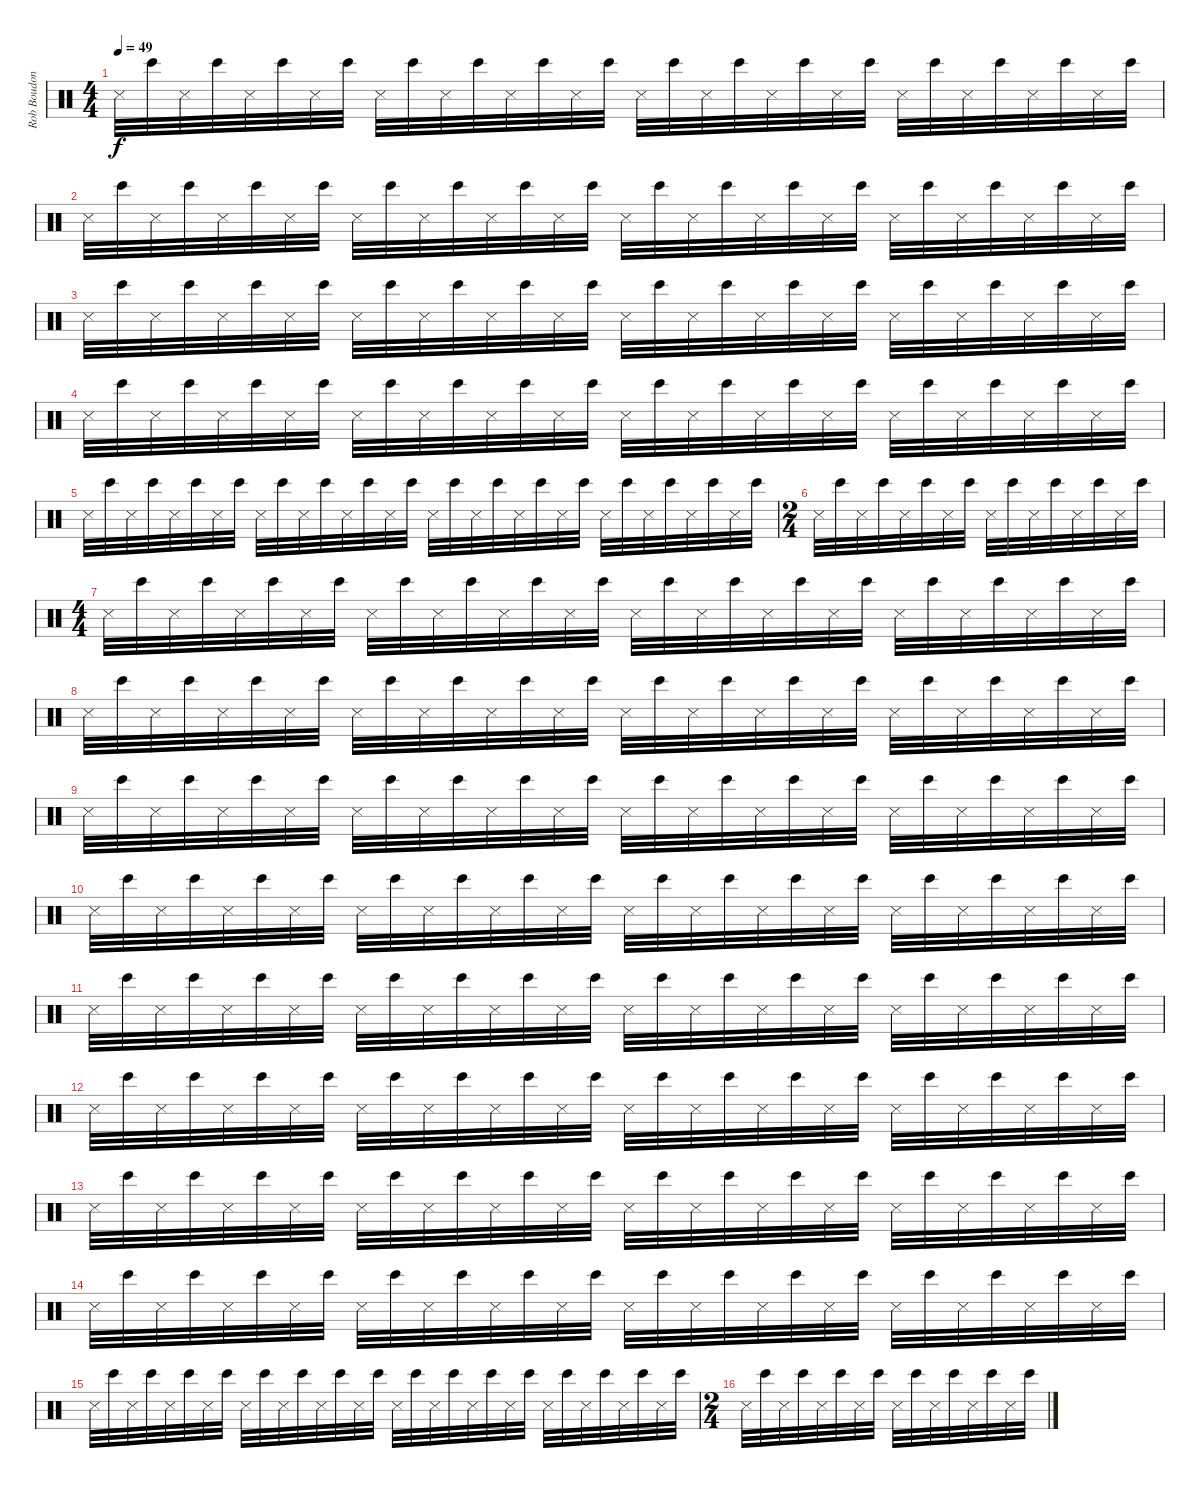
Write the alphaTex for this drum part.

\track ("Rob Boudon [Drums]" "Rob Boudon") {instrument percussion}
\staff {score}
\articulation defaults
\ts (4 4)
\tempo 49
\clef neutral
\ks c "Snare (side stick) 3".32{dy f} "Bongo High (hit)".32 "Snare (side stick) 3".32 "Bongo High (hit)".32 "Snare (side stick) 3".32 "Bongo High (hit)".32 "Snare (side stick) 3".32 "Bongo High (hit)".32 "Snare (side stick) 3".32 "Bongo High (hit)".32 "Snare (side stick) 3".32 "Bongo High (hit)".32 "Snare (side stick) 3".32 "Bongo High (hit)".32 "Snare (side stick) 3".32 "Bongo High (hit)".32 "Snare (side stick) 3".32 "Bongo High (hit)".32 "Snare (side stick) 3".32 "Bongo High (hit)".32 "Snare (side stick) 3".32 "Bongo High (hit)".32 "Snare (side stick) 3".32 "Bongo High (hit)".32 "Snare (side stick) 3".32 "Bongo High (hit)".32 "Snare (side stick) 3".32 "Bongo High (hit)".32 "Snare (side stick) 3".32 "Bongo High (hit)".32 "Snare (side stick) 3".32 "Bongo High (hit)".32
|
"Snare (side stick) 3".32 "Bongo High (hit)".32 "Snare (side stick) 3".32 "Bongo High (hit)".32 "Snare (side stick) 3".32 "Bongo High (hit)".32 "Snare (side stick) 3".32 "Bongo High (hit)".32 "Snare (side stick) 3".32 "Bongo High (hit)".32 "Snare (side stick) 3".32 "Bongo High (hit)".32 "Snare (side stick) 3".32 "Bongo High (hit)".32 "Snare (side stick) 3".32 "Bongo High (hit)".32 "Snare (side stick) 3".32 "Bongo High (hit)".32 "Snare (side stick) 3".32 "Bongo High (hit)".32 "Snare (side stick) 3".32 "Bongo High (hit)".32 "Snare (side stick) 3".32 "Bongo High (hit)".32 "Snare (side stick) 3".32 "Bongo High (hit)".32 "Snare (side stick) 3".32 "Bongo High (hit)".32 "Snare (side stick) 3".32 "Bongo High (hit)".32 "Snare (side stick) 3".32 "Bongo High (hit)".32 |
"Snare (side stick) 3".32 "Bongo High (hit)".32 "Snare (side stick) 3".32 "Bongo High (hit)".32 "Snare (side stick) 3".32 "Bongo High (hit)".32 "Snare (side stick) 3".32 "Bongo High (hit)".32 "Snare (side stick) 3".32 "Bongo High (hit)".32 "Snare (side stick) 3".32 "Bongo High (hit)".32 "Snare (side stick) 3".32 "Bongo High (hit)".32 "Snare (side stick) 3".32 "Bongo High (hit)".32 "Snare (side stick) 3".32 "Bongo High (hit)".32 "Snare (side stick) 3".32 "Bongo High (hit)".32 "Snare (side stick) 3".32 "Bongo High (hit)".32 "Snare (side stick) 3".32 "Bongo High (hit)".32 "Snare (side stick) 3".32 "Bongo High (hit)".32 "Snare (side stick) 3".32 "Bongo High (hit)".32 "Snare (side stick) 3".32 "Bongo High (hit)".32 "Snare (side stick) 3".32 "Bongo High (hit)".32 |
"Snare (side stick) 3".32 "Bongo High (hit)".32 "Snare (side stick) 3".32 "Bongo High (hit)".32 "Snare (side stick) 3".32 "Bongo High (hit)".32 "Snare (side stick) 3".32 "Bongo High (hit)".32 "Snare (side stick) 3".32 "Bongo High (hit)".32 "Snare (side stick) 3".32 "Bongo High (hit)".32 "Snare (side stick) 3".32 "Bongo High (hit)".32 "Snare (side stick) 3".32 "Bongo High (hit)".32 "Snare (side stick) 3".32 "Bongo High (hit)".32 "Snare (side stick) 3".32 "Bongo High (hit)".32 "Snare (side stick) 3".32 "Bongo High (hit)".32 "Snare (side stick) 3".32 "Bongo High (hit)".32 "Snare (side stick) 3".32 "Bongo High (hit)".32 "Snare (side stick) 3".32 "Bongo High (hit)".32 "Snare (side stick) 3".32 "Bongo High (hit)".32 "Snare (side stick) 3".32 "Bongo High (hit)".32 |
"Snare (side stick) 3".32 "Bongo High (hit)".32 "Snare (side stick) 3".32 "Bongo High (hit)".32 "Snare (side stick) 3".32 "Bongo High (hit)".32 "Snare (side stick) 3".32 "Bongo High (hit)".32 "Snare (side stick) 3".32 "Bongo High (hit)".32 "Snare (side stick) 3".32 "Bongo High (hit)".32 "Snare (side stick) 3".32 "Bongo High (hit)".32 "Snare (side stick) 3".32 "Bongo High (hit)".32 "Snare (side stick) 3".32 "Bongo High (hit)".32 "Snare (side stick) 3".32 "Bongo High (hit)".32 "Snare (side stick) 3".32 "Bongo High (hit)".32 "Snare (side stick) 3".32 "Bongo High (hit)".32 "Snare (side stick) 3".32 "Bongo High (hit)".32 "Snare (side stick) 3".32 "Bongo High (hit)".32 "Snare (side stick) 3".32 "Bongo High (hit)".32 "Snare (side stick) 3".32 "Bongo High (hit)".32 |
\ts (2 4)
"Snare (side stick) 3".32 "Bongo High (hit)".32 "Snare (side stick) 3".32 "Bongo High (hit)".32 "Snare (side stick) 3".32 "Bongo High (hit)".32 "Snare (side stick) 3".32 "Bongo High (hit)".32 "Snare (side stick) 3".32 "Bongo High (hit)".32 "Snare (side stick) 3".32 "Bongo High (hit)".32 "Snare (side stick) 3".32 "Bongo High (hit)".32 "Snare (side stick) 3".32 "Bongo High (hit)".32 |
\ts (4 4)
"Snare (side stick) 3".32 "Bongo High (hit)".32 "Snare (side stick) 3".32 "Bongo High (hit)".32 "Snare (side stick) 3".32 "Bongo High (hit)".32 "Snare (side stick) 3".32 "Bongo High (hit)".32 "Snare (side stick) 3".32 "Bongo High (hit)".32 "Snare (side stick) 3".32 "Bongo High (hit)".32 "Snare (side stick) 3".32 "Bongo High (hit)".32 "Snare (side stick) 3".32 "Bongo High (hit)".32 "Snare (side stick) 3".32 "Bongo High (hit)".32 "Snare (side stick) 3".32 "Bongo High (hit)".32 "Snare (side stick) 3".32 "Bongo High (hit)".32 "Snare (side stick) 3".32 "Bongo High (hit)".32 "Snare (side stick) 3".32 "Bongo High (hit)".32 "Snare (side stick) 3".32 "Bongo High (hit)".32 "Snare (side stick) 3".32 "Bongo High (hit)".32 "Snare (side stick) 3".32 "Bongo High (hit)".32 |
"Snare (side stick) 3".32 "Bongo High (hit)".32 "Snare (side stick) 3".32 "Bongo High (hit)".32 "Snare (side stick) 3".32 "Bongo High (hit)".32 "Snare (side stick) 3".32 "Bongo High (hit)".32 "Snare (side stick) 3".32 "Bongo High (hit)".32 "Snare (side stick) 3".32 "Bongo High (hit)".32 "Snare (side stick) 3".32 "Bongo High (hit)".32 "Snare (side stick) 3".32 "Bongo High (hit)".32 "Snare (side stick) 3".32 "Bongo High (hit)".32 "Snare (side stick) 3".32 "Bongo High (hit)".32 "Snare (side stick) 3".32 "Bongo High (hit)".32 "Snare (side stick) 3".32 "Bongo High (hit)".32 "Snare (side stick) 3".32 "Bongo High (hit)".32 "Snare (side stick) 3".32 "Bongo High (hit)".32 "Snare (side stick) 3".32 "Bongo High (hit)".32 "Snare (side stick) 3".32 "Bongo High (hit)".32 |
"Snare (side stick) 3".32 "Bongo High (hit)".32 "Snare (side stick) 3".32 "Bongo High (hit)".32 "Snare (side stick) 3".32 "Bongo High (hit)".32 "Snare (side stick) 3".32 "Bongo High (hit)".32 "Snare (side stick) 3".32 "Bongo High (hit)".32 "Snare (side stick) 3".32 "Bongo High (hit)".32 "Snare (side stick) 3".32 "Bongo High (hit)".32 "Snare (side stick) 3".32 "Bongo High (hit)".32 "Snare (side stick) 3".32 "Bongo High (hit)".32 "Snare (side stick) 3".32 "Bongo High (hit)".32 "Snare (side stick) 3".32 "Bongo High (hit)".32 "Snare (side stick) 3".32 "Bongo High (hit)".32 "Snare (side stick) 3".32 "Bongo High (hit)".32 "Snare (side stick) 3".32 "Bongo High (hit)".32 "Snare (side stick) 3".32 "Bongo High (hit)".32 "Snare (side stick) 3".32 "Bongo High (hit)".32 |
"Snare (side stick) 3".32 "Bongo High (hit)".32 "Snare (side stick) 3".32 "Bongo High (hit)".32 "Snare (side stick) 3".32 "Bongo High (hit)".32 "Snare (side stick) 3".32 "Bongo High (hit)".32 "Snare (side stick) 3".32 "Bongo High (hit)".32 "Snare (side stick) 3".32 "Bongo High (hit)".32 "Snare (side stick) 3".32 "Bongo High (hit)".32 "Snare (side stick) 3".32 "Bongo High (hit)".32 "Snare (side stick) 3".32 "Bongo High (hit)".32 "Snare (side stick) 3".32 "Bongo High (hit)".32 "Snare (side stick) 3".32 "Bongo High (hit)".32 "Snare (side stick) 3".32 "Bongo High (hit)".32 "Snare (side stick) 3".32 "Bongo High (hit)".32 "Snare (side stick) 3".32 "Bongo High (hit)".32 "Snare (side stick) 3".32 "Bongo High (hit)".32 "Snare (side stick) 3".32 "Bongo High (hit)".32 |
"Snare (side stick) 3".32 "Bongo High (hit)".32 "Snare (side stick) 3".32 "Bongo High (hit)".32 "Snare (side stick) 3".32 "Bongo High (hit)".32 "Snare (side stick) 3".32 "Bongo High (hit)".32 "Snare (side stick) 3".32 "Bongo High (hit)".32 "Snare (side stick) 3".32 "Bongo High (hit)".32 "Snare (side stick) 3".32 "Bongo High (hit)".32 "Snare (side stick) 3".32 "Bongo High (hit)".32 "Snare (side stick) 3".32 "Bongo High (hit)".32 "Snare (side stick) 3".32 "Bongo High (hit)".32 "Snare (side stick) 3".32 "Bongo High (hit)".32 "Snare (side stick) 3".32 "Bongo High (hit)".32 "Snare (side stick) 3".32 "Bongo High (hit)".32 "Snare (side stick) 3".32 "Bongo High (hit)".32 "Snare (side stick) 3".32 "Bongo High (hit)".32 "Snare (side stick) 3".32 "Bongo High (hit)".32 |
"Snare (side stick) 3".32 "Bongo High (hit)".32 "Snare (side stick) 3".32 "Bongo High (hit)".32 "Snare (side stick) 3".32 "Bongo High (hit)".32 "Snare (side stick) 3".32 "Bongo High (hit)".32 "Snare (side stick) 3".32 "Bongo High (hit)".32 "Snare (side stick) 3".32 "Bongo High (hit)".32 "Snare (side stick) 3".32 "Bongo High (hit)".32 "Snare (side stick) 3".32 "Bongo High (hit)".32 "Snare (side stick) 3".32 "Bongo High (hit)".32 "Snare (side stick) 3".32 "Bongo High (hit)".32 "Snare (side stick) 3".32 "Bongo High (hit)".32 "Snare (side stick) 3".32 "Bongo High (hit)".32 "Snare (side stick) 3".32 "Bongo High (hit)".32 "Snare (side stick) 3".32 "Bongo High (hit)".32 "Snare (side stick) 3".32 "Bongo High (hit)".32 "Snare (side stick) 3".32 "Bongo High (hit)".32 |
"Snare (side stick) 3".32 "Bongo High (hit)".32 "Snare (side stick) 3".32 "Bongo High (hit)".32 "Snare (side stick) 3".32 "Bongo High (hit)".32 "Snare (side stick) 3".32 "Bongo High (hit)".32 "Snare (side stick) 3".32 "Bongo High (hit)".32 "Snare (side stick) 3".32 "Bongo High (hit)".32 "Snare (side stick) 3".32 "Bongo High (hit)".32 "Snare (side stick) 3".32 "Bongo High (hit)".32 "Snare (side stick) 3".32 "Bongo High (hit)".32 "Snare (side stick) 3".32 "Bongo High (hit)".32 "Snare (side stick) 3".32 "Bongo High (hit)".32 "Snare (side stick) 3".32 "Bongo High (hit)".32 "Snare (side stick) 3".32 "Bongo High (hit)".32 "Snare (side stick) 3".32 "Bongo High (hit)".32 "Snare (side stick) 3".32 "Bongo High (hit)".32 "Snare (side stick) 3".32 "Bongo High (hit)".32 |
"Snare (side stick) 3".32 "Bongo High (hit)".32 "Snare (side stick) 3".32 "Bongo High (hit)".32 "Snare (side stick) 3".32 "Bongo High (hit)".32 "Snare (side stick) 3".32 "Bongo High (hit)".32 "Snare (side stick) 3".32 "Bongo High (hit)".32 "Snare (side stick) 3".32 "Bongo High (hit)".32 "Snare (side stick) 3".32 "Bongo High (hit)".32 "Snare (side stick) 3".32 "Bongo High (hit)".32 "Snare (side stick) 3".32 "Bongo High (hit)".32 "Snare (side stick) 3".32 "Bongo High (hit)".32 "Snare (side stick) 3".32 "Bongo High (hit)".32 "Snare (side stick) 3".32 "Bongo High (hit)".32 "Snare (side stick) 3".32 "Bongo High (hit)".32 "Snare (side stick) 3".32 "Bongo High (hit)".32 "Snare (side stick) 3".32 "Bongo High (hit)".32 "Snare (side stick) 3".32 "Bongo High (hit)".32 |
"Snare (side stick) 3".32 "Bongo High (hit)".32 "Snare (side stick) 3".32 "Bongo High (hit)".32 "Snare (side stick) 3".32 "Bongo High (hit)".32 "Snare (side stick) 3".32 "Bongo High (hit)".32 "Snare (side stick) 3".32 "Bongo High (hit)".32 "Snare (side stick) 3".32 "Bongo High (hit)".32 "Snare (side stick) 3".32 "Bongo High (hit)".32 "Snare (side stick) 3".32 "Bongo High (hit)".32 "Snare (side stick) 3".32 "Bongo High (hit)".32 "Snare (side stick) 3".32 "Bongo High (hit)".32 "Snare (side stick) 3".32 "Bongo High (hit)".32 "Snare (side stick) 3".32 "Bongo High (hit)".32 "Snare (side stick) 3".32 "Bongo High (hit)".32 "Snare (side stick) 3".32 "Bongo High (hit)".32 "Snare (side stick) 3".32 "Bongo High (hit)".32 "Snare (side stick) 3".32 "Bongo High (hit)".32 |
\ts (2 4)
"Snare (side stick) 3".32 "Bongo High (hit)".32 "Snare (side stick) 3".32 "Bongo High (hit)".32 "Snare (side stick) 3".32 "Bongo High (hit)".32 "Snare (side stick) 3".32 "Bongo High (hit)".32 "Snare (side stick) 3".32 "Bongo High (hit)".32 "Snare (side stick) 3".32 "Bongo High (hit)".32 "Snare (side stick) 3".32 "Bongo High (hit)".32 "Snare (side stick) 3".32 "Bongo High (hit)".32
